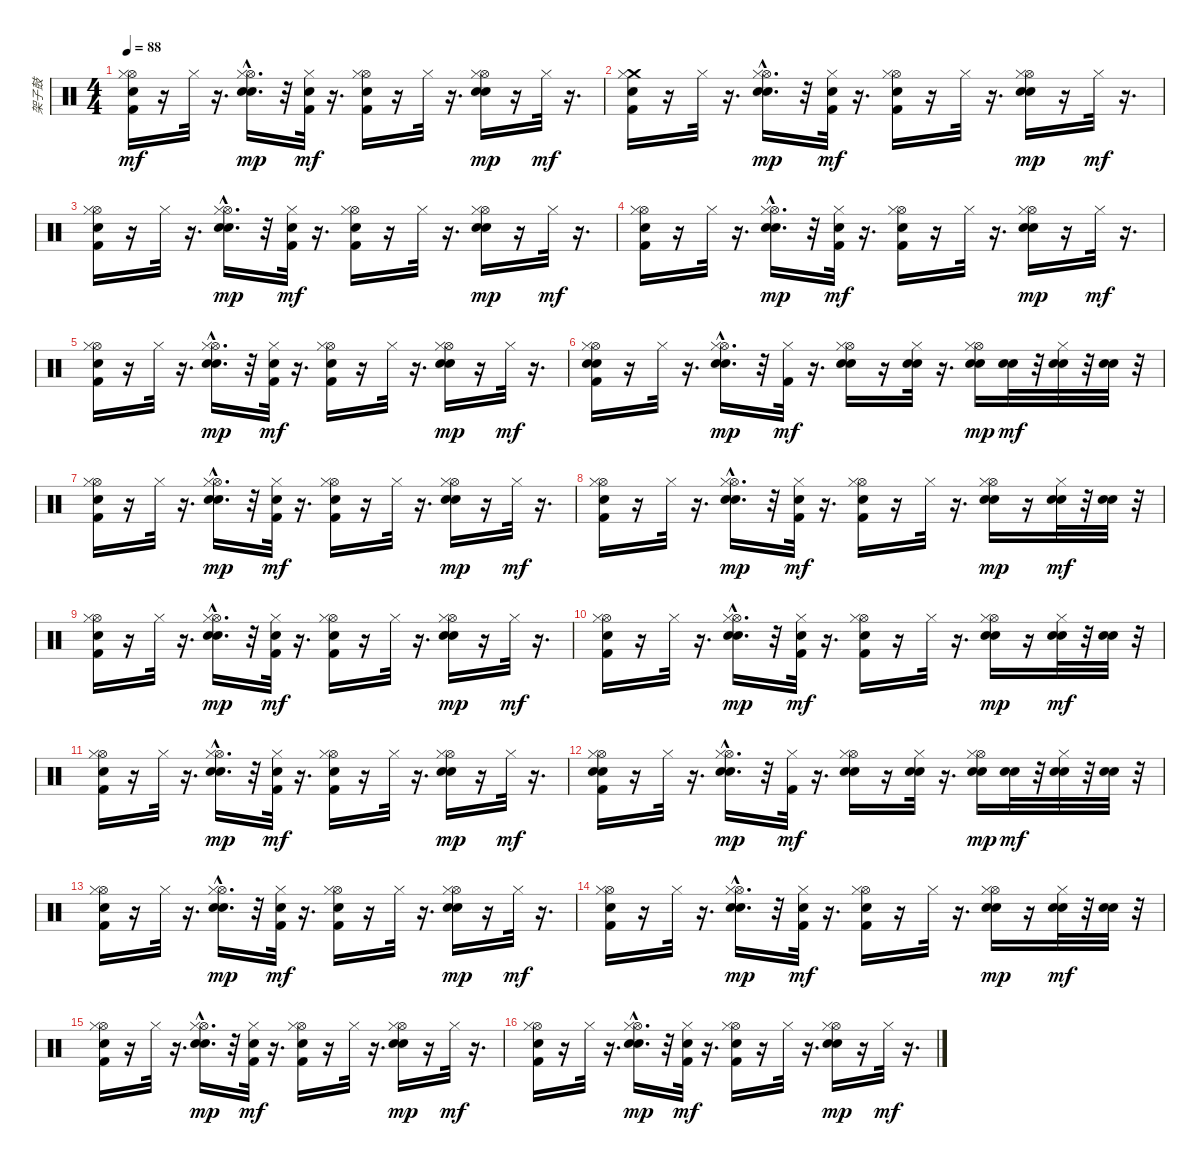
\track ("架子鼓" "架子鼓") {instrument percussion}
\staff {score}
\articulation defaults
\ts (4 4)
\tempo 88
\clef neutral
\ks c
("Hi-Hat (open)" "Hi-Hat (closed)" "Kick (hit) 2" "Snare (hit)").16{dy mf} r.16 "Hi-Hat (closed)".32 r.16{d} ("Hi-Hat (open)"{hac} "Hi-Hat (closed)" "Electric Snare (hit)" "Metronome (bell)").16{d dy mp} r.32 ("Hi-Hat (closed)" "Kick (hit) 2" "Snare (hit)").32{dy mf} r.16{d} ("Hi-Hat (open)" "Hi-Hat (closed)" "Kick (hit) 2" "Snare (hit)").16 r.16 "Hi-Hat (closed)".32 r.16{d} ("Hi-Hat (open)" "Hi-Hat (closed)" "Electric Snare (hit)" "Metronome (bell)").16{dy mp} r.16 "Hi-Hat (closed)".32{dy mf} r.16{d} |
("Crash medium (hit)" "Hi-Hat (closed)" "Kick (hit) 2" "Snare (hit)").16 r.16 "Hi-Hat (closed)".32 r.16{d} ("Hi-Hat (open)"{hac} "Hi-Hat (closed)" "Electric Snare (hit)" "Metronome (bell)").16{d dy mp} r.32 ("Hi-Hat (closed)" "Kick (hit) 2" "Snare (hit)").32{dy mf} r.16{d} ("Hi-Hat (open)" "Hi-Hat (closed)" "Kick (hit) 2" "Snare (hit)").16 r.16 "Hi-Hat (closed)".32 r.16{d} ("Hi-Hat (open)" "Hi-Hat (closed)" "Electric Snare (hit)" "Metronome (bell)").16{dy mp} r.16 "Hi-Hat (closed)".32{dy mf} r.16{d} |
("Hi-Hat (open)" "Hi-Hat (closed)" "Kick (hit) 2" "Snare (hit)").16 r.16 "Hi-Hat (closed)".32 r.16{d} ("Hi-Hat (open)"{hac} "Hi-Hat (closed)" "Electric Snare (hit)" "Metronome (bell)").16{d dy mp} r.32 ("Hi-Hat (closed)" "Kick (hit) 2" "Snare (hit)").32{dy mf} r.16{d} ("Hi-Hat (open)" "Hi-Hat (closed)" "Kick (hit) 2" "Snare (hit)").16 r.16 "Hi-Hat (closed)".32 r.16{d} ("Hi-Hat (open)" "Hi-Hat (closed)" "Electric Snare (hit)" "Metronome (bell)").16{dy mp} r.16 "Hi-Hat (closed)".32{dy mf} r.16{d} |
("Hi-Hat (open)" "Hi-Hat (closed)" "Kick (hit) 2" "Snare (hit)").16 r.16 "Hi-Hat (closed)".32 r.16{d} ("Hi-Hat (open)"{hac} "Hi-Hat (closed)" "Electric Snare (hit)" "Metronome (bell)").16{d dy mp} r.32 ("Hi-Hat (closed)" "Kick (hit) 2" "Snare (hit)").32{dy mf} r.16{d} ("Hi-Hat (open)" "Hi-Hat (closed)" "Kick (hit) 2" "Snare (hit)").16 r.16 "Hi-Hat (closed)".32 r.16{d} ("Hi-Hat (open)" "Hi-Hat (closed)" "Electric Snare (hit)" "Metronome (bell)").16{dy mp} r.16 "Hi-Hat (closed)".32{dy mf} r.16{d} |
("Hi-Hat (open)" "Hi-Hat (closed)" "Kick (hit) 2" "Snare (hit)").16 r.16 "Hi-Hat (closed)".32 r.16{d} ("Hi-Hat (open)"{hac} "Hi-Hat (closed)" "Electric Snare (hit)" "Metronome (bell)").16{d dy mp} r.32 ("Hi-Hat (closed)" "Kick (hit) 2" "Snare (hit)").32{dy mf} r.16{d} ("Hi-Hat (open)" "Hi-Hat (closed)" "Kick (hit) 2" "Snare (hit)").16 r.16 "Hi-Hat (closed)".32 r.16{d} ("Hi-Hat (open)" "Hi-Hat (closed)" "Electric Snare (hit)" "Metronome (bell)").16{dy mp} r.16 "Hi-Hat (closed)".32{dy mf} r.16{d} |
("Hi-Hat (open)" "Hi-Hat (closed)" "Electric Snare (hit)" "Electric Snare (hit)" "Kick (hit) 2").16 r.16 "Hi-Hat (closed)".32 r.16{d} ("Hi-Hat (open)"{hac} "Hi-Hat (closed)" "Electric Snare (hit)" "Metronome (bell)").16{d dy mp} r.32 ("Hi-Hat (closed)" "Kick (hit) 2").32{dy mf} r.16{d} ("Hi-Hat (open)" "Hi-Hat (closed)" "Electric Snare (hit)" "Metronome (bell)").16 r.16 ("Hi-Hat (closed)" "Electric Snare (hit)" "Metronome (bell)").32 r.16{d} ("Hi-Hat (open)" "Hi-Hat (closed)" "Electric Snare (hit)" "Metronome (bell)").16{dy mp} ("Electric Snare (hit)" "Metronome (bell)").32{dy mf} r.32 ("Hi-Hat (closed)" "Electric Snare (hit)" "Metronome (bell)").32 r.32 ("Electric Snare (hit)" "Metronome (bell)").32 r.32 |
("Hi-Hat (open)" "Hi-Hat (closed)" "Kick (hit) 2" "Snare (hit)").16 r.16 "Hi-Hat (closed)".32 r.16{d} ("Hi-Hat (open)"{hac} "Hi-Hat (closed)" "Electric Snare (hit)" "Metronome (bell)").16{d dy mp} r.32 ("Hi-Hat (closed)" "Kick (hit) 2" "Snare (hit)").32{dy mf} r.16{d} ("Hi-Hat (open)" "Hi-Hat (closed)" "Kick (hit) 2" "Snare (hit)").16 r.16 "Hi-Hat (closed)".32 r.16{d} ("Hi-Hat (open)" "Hi-Hat (closed)" "Electric Snare (hit)" "Metronome (bell)").16{dy mp} r.16 "Hi-Hat (closed)".32{dy mf} r.16{d} |
("Hi-Hat (open)" "Hi-Hat (closed)" "Kick (hit) 2" "Snare (hit)").16 r.16 "Hi-Hat (closed)".32 r.16{d} ("Hi-Hat (open)"{hac} "Hi-Hat (closed)" "Electric Snare (hit)" "Metronome (bell)").16{d dy mp} r.32 ("Hi-Hat (closed)" "Kick (hit) 2" "Snare (hit)").32{dy mf} r.16{d} ("Hi-Hat (open)" "Hi-Hat (closed)" "Kick (hit) 2" "Snare (hit)").16 r.16 "Hi-Hat (closed)".32 r.16{d} ("Hi-Hat (open)" "Hi-Hat (closed)" "Electric Snare (hit)" "Metronome (bell)").16{dy mp} r.16 ("Hi-Hat (closed)" "Electric Snare (hit)" "Metronome (bell)").32{dy mf} r.32 ("Electric Snare (hit)" "Metronome (bell)").32 r.32 |
("Hi-Hat (open)" "Hi-Hat (closed)" "Kick (hit) 2" "Snare (hit)").16 r.16 "Hi-Hat (closed)".32 r.16{d} ("Hi-Hat (open)"{hac} "Hi-Hat (closed)" "Electric Snare (hit)" "Metronome (bell)").16{d dy mp} r.32 ("Hi-Hat (closed)" "Kick (hit) 2" "Snare (hit)").32{dy mf} r.16{d} ("Hi-Hat (open)" "Hi-Hat (closed)" "Kick (hit) 2" "Snare (hit)").16 r.16 "Hi-Hat (closed)".32 r.16{d} ("Hi-Hat (open)" "Hi-Hat (closed)" "Electric Snare (hit)" "Metronome (bell)").16{dy mp} r.16 "Hi-Hat (closed)".32{dy mf} r.16{d} |
("Hi-Hat (open)" "Hi-Hat (closed)" "Kick (hit) 2" "Snare (hit)").16 r.16 "Hi-Hat (closed)".32 r.16{d} ("Hi-Hat (open)"{hac} "Hi-Hat (closed)" "Electric Snare (hit)" "Metronome (bell)").16{d dy mp} r.32 ("Hi-Hat (closed)" "Kick (hit) 2" "Snare (hit)").32{dy mf} r.16{d} ("Hi-Hat (open)" "Hi-Hat (closed)" "Kick (hit) 2" "Snare (hit)").16 r.16 "Hi-Hat (closed)".32 r.16{d} ("Hi-Hat (open)" "Hi-Hat (closed)" "Electric Snare (hit)" "Metronome (bell)").16{dy mp} r.16 ("Hi-Hat (closed)" "Electric Snare (hit)" "Metronome (bell)").32{dy mf} r.32 ("Electric Snare (hit)" "Metronome (bell)").32 r.32 |
("Hi-Hat (open)" "Hi-Hat (closed)" "Kick (hit) 2" "Snare (hit)").16 r.16 "Hi-Hat (closed)".32 r.16{d} ("Hi-Hat (open)"{hac} "Hi-Hat (closed)" "Electric Snare (hit)" "Metronome (bell)").16{d dy mp} r.32 ("Hi-Hat (closed)" "Kick (hit) 2" "Snare (hit)").32{dy mf} r.16{d} ("Hi-Hat (open)" "Hi-Hat (closed)" "Kick (hit) 2" "Snare (hit)").16 r.16 "Hi-Hat (closed)".32 r.16{d} ("Hi-Hat (open)" "Hi-Hat (closed)" "Electric Snare (hit)" "Metronome (bell)").16{dy mp} r.16 "Hi-Hat (closed)".32{dy mf} r.16{d} |
("Hi-Hat (open)" "Hi-Hat (closed)" "Electric Snare (hit)" "Electric Snare (hit)" "Kick (hit) 2").16 r.16 "Hi-Hat (closed)".32 r.16{d} ("Hi-Hat (open)"{hac} "Hi-Hat (closed)" "Electric Snare (hit)" "Metronome (bell)").16{d dy mp} r.32 ("Hi-Hat (closed)" "Kick (hit) 2").32{dy mf} r.16{d} ("Hi-Hat (open)" "Hi-Hat (closed)" "Electric Snare (hit)" "Metronome (bell)").16 r.16 ("Hi-Hat (closed)" "Electric Snare (hit)" "Metronome (bell)").32 r.16{d} ("Hi-Hat (open)" "Hi-Hat (closed)" "Electric Snare (hit)" "Metronome (bell)").16{dy mp} ("Electric Snare (hit)" "Metronome (bell)").32{dy mf} r.32 ("Hi-Hat (closed)" "Electric Snare (hit)" "Metronome (bell)").32 r.32 ("Electric Snare (hit)" "Metronome (bell)").32 r.32 |
("Hi-Hat (open)" "Hi-Hat (closed)" "Kick (hit) 2" "Snare (hit)").16 r.16 "Hi-Hat (closed)".32 r.16{d} ("Hi-Hat (open)"{hac} "Hi-Hat (closed)" "Electric Snare (hit)" "Metronome (bell)").16{d dy mp} r.32 ("Hi-Hat (closed)" "Kick (hit) 2" "Snare (hit)").32{dy mf} r.16{d} ("Hi-Hat (open)" "Hi-Hat (closed)" "Kick (hit) 2" "Snare (hit)").16 r.16 "Hi-Hat (closed)".32 r.16{d} ("Hi-Hat (open)" "Hi-Hat (closed)" "Electric Snare (hit)" "Metronome (bell)").16{dy mp} r.16 "Hi-Hat (closed)".32{dy mf} r.16{d} |
("Hi-Hat (open)" "Hi-Hat (closed)" "Kick (hit) 2" "Snare (hit)").16 r.16 "Hi-Hat (closed)".32 r.16{d} ("Hi-Hat (open)"{hac} "Hi-Hat (closed)" "Electric Snare (hit)" "Metronome (bell)").16{d dy mp} r.32 ("Hi-Hat (closed)" "Kick (hit) 2" "Snare (hit)").32{dy mf} r.16{d} ("Hi-Hat (open)" "Hi-Hat (closed)" "Kick (hit) 2" "Snare (hit)").16 r.16 "Hi-Hat (closed)".32 r.16{d} ("Hi-Hat (open)" "Hi-Hat (closed)" "Electric Snare (hit)" "Metronome (bell)").16{dy mp} r.16 ("Hi-Hat (closed)" "Electric Snare (hit)" "Metronome (bell)").32{dy mf} r.32 ("Electric Snare (hit)" "Metronome (bell)").32 r.32 |
("Hi-Hat (open)" "Hi-Hat (closed)" "Kick (hit) 2" "Snare (hit)").16 r.16 "Hi-Hat (closed)".32 r.16{d} ("Hi-Hat (open)"{hac} "Hi-Hat (closed)" "Electric Snare (hit)" "Metronome (bell)").16{d dy mp} r.32 ("Hi-Hat (closed)" "Kick (hit) 2" "Snare (hit)").32{dy mf} r.16{d} ("Hi-Hat (open)" "Hi-Hat (closed)" "Kick (hit) 2" "Snare (hit)").16 r.16 "Hi-Hat (closed)".32 r.16{d} ("Hi-Hat (open)" "Hi-Hat (closed)" "Electric Snare (hit)" "Metronome (bell)").16{dy mp} r.16 "Hi-Hat (closed)".32{dy mf} r.16{d} |
("Hi-Hat (open)" "Hi-Hat (closed)" "Kick (hit) 2" "Snare (hit)").16 r.16 "Hi-Hat (closed)".32 r.16{d} ("Hi-Hat (open)"{hac} "Hi-Hat (closed)" "Electric Snare (hit)" "Metronome (bell)").16{d dy mp} r.32 ("Hi-Hat (closed)" "Kick (hit) 2" "Snare (hit)").32{dy mf} r.16{d} ("Hi-Hat (open)" "Hi-Hat (closed)" "Kick (hit) 2" "Snare (hit)").16 r.16 "Hi-Hat (closed)".32 r.16{d} ("Hi-Hat (open)" "Hi-Hat (closed)" "Electric Snare (hit)" "Metronome (bell)").16{dy mp} r.16 "Hi-Hat (closed)".32{dy mf} r.16{d}
